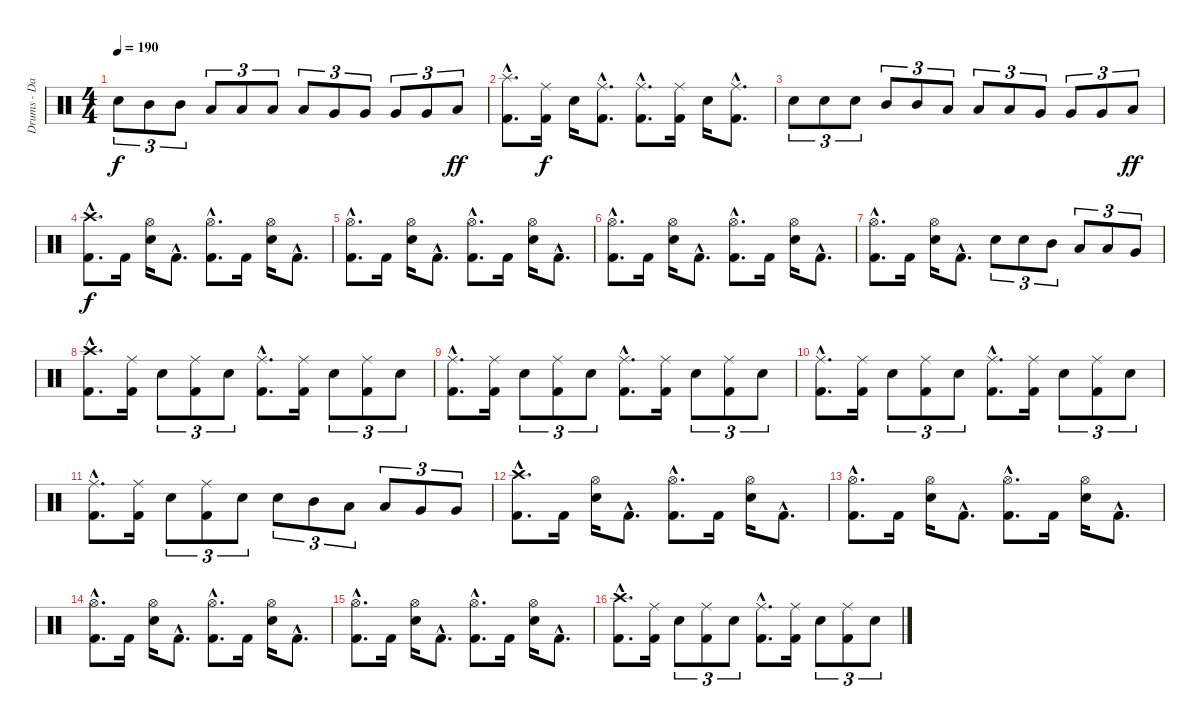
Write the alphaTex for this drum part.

\track ("Drums - Daniel Zimmermann" "Drums - Da") {instrument percussion}
\staff {score}
\articulation defaults
\ts (4 4)
\tempo 190
\clef neutral
\ks c "Electric Snare (hit)".8{tu (3 2) dy f} "Mid Tom (hit)".8{tu (3 2)} "Mid Tom (hit)".8{tu (3 2)} "Low Tom (hit)".8{tu (3 2)} "Low Tom (hit)".8{tu (3 2)} "Low Tom (hit)".8{tu (3 2)} "Low Tom (hit)".8{tu (3 2)} "Very Low Tom (hit)".8{tu (3 2)} "Very Low Tom (hit)".8{tu (3 2)} "Very Low Tom (hit)".8{tu (3 2)} "Very Low Tom (hit)".8{tu (3 2)} "Low Floor Tom (hit)".8{tu (3 2) dy ff}
|
("Kick (hit) 2"{hac} "Splash (hit)"{hac}).8{d} ("Kick (hit) 2" "Ride (middle)").16{dy f} "Electric Snare (hit)".16 ("Kick (hit) 2"{hac} "Ride (middle)"{hac}).8{d} ("Kick (hit) 2"{hac} "Ride (middle)"{hac}).8{d} ("Kick (hit) 2" "Ride (middle)").16 "Electric Snare (hit)".16 ("Kick (hit) 2"{hac} "Ride (middle)"{hac}).8{d} |
"Electric Snare (hit)".8{tu (3 2)} "Electric Snare (hit)".8{tu (3 2)} "Electric Snare (hit)".8{tu (3 2)} "Mid Tom (hit)".8{tu (3 2)} "Mid Tom (hit)".8{tu (3 2)} "Low Tom (hit)".8{tu (3 2)} "Low Tom (hit)".8{tu (3 2)} "Low Tom (hit)".8{tu (3 2)} "Very Low Tom (hit)".8{tu (3 2)} "Very Low Tom (hit)".8{tu (3 2)} "Very Low Tom (hit)".8{tu (3 2)} "Low Floor Tom (hit)".8{tu (3 2) dy ff} |
\section ("" "")
("Kick (hit) 2"{hac} "Crash high (hit)"{hac}).8{d dy f} "Kick (hit) 2".16 ("Electric Snare (hit)" "Hi-Hat (open)").16 "Kick (hit) 2"{hac}.8{d} ("Kick (hit) 2"{hac} "Hi-Hat (open)"{hac}).8{d} "Kick (hit) 2".16 ("Electric Snare (hit)" "Hi-Hat (open)").16 "Kick (hit) 2"{hac}.8{d} |
("Kick (hit) 2"{hac} "Hi-Hat (open)"{hac}).8{d} "Kick (hit) 2".16 ("Electric Snare (hit)" "Hi-Hat (open)").16 "Kick (hit) 2"{hac}.8{d} ("Kick (hit) 2"{hac} "Hi-Hat (open)"{hac}).8{d} "Kick (hit) 2".16 ("Electric Snare (hit)" "Hi-Hat (open)").16 "Kick (hit) 2"{hac}.8{d} |
("Kick (hit) 2"{hac} "Hi-Hat (open)"{hac}).8{d} "Kick (hit) 2".16 ("Electric Snare (hit)" "Hi-Hat (open)").16 "Kick (hit) 2"{hac}.8{d} ("Kick (hit) 2"{hac} "Hi-Hat (open)"{hac}).8{d} "Kick (hit) 2".16 ("Electric Snare (hit)" "Hi-Hat (open)").16 "Kick (hit) 2"{hac}.8{d} |
("Kick (hit) 2"{hac} "Hi-Hat (open)"{hac}).8{d} "Kick (hit) 2".16 ("Electric Snare (hit)" "Hi-Hat (open)").16 "Kick (hit) 2"{hac}.8{d} "Electric Snare (hit)".8{tu (3 2)} "Electric Snare (hit)".8{tu (3 2)} "Mid Tom (hit)".8{tu (3 2)} "Low Tom (hit)".8{tu (3 2)} "Low Tom (hit)".8{tu (3 2)} "Very Low Tom (hit)".8{tu (3 2)} |
("Kick (hit) 2"{hac} "Crash high (hit)"{hac}).8{d} ("Kick (hit) 2" "Ride (middle)").16 "Electric Snare (hit)".8{tu (3 2)} ("Kick (hit) 2" "Ride (middle)").8{tu (3 2)} "Electric Snare (hit)".8{tu (3 2)} ("Kick (hit) 2"{hac} "Ride (middle)"{hac}).8{d} ("Kick (hit) 2" "Ride (middle)").16 "Electric Snare (hit)".8{tu (3 2)} ("Kick (hit) 2" "Ride (middle)").8{tu (3 2)} "Electric Snare (hit)".8{tu (3 2)} |
("Kick (hit) 2"{hac} "Ride (middle)"{hac}).8{d} ("Kick (hit) 2" "Ride (middle)").16 "Electric Snare (hit)".8{tu (3 2)} ("Kick (hit) 2" "Ride (middle)").8{tu (3 2)} "Electric Snare (hit)".8{tu (3 2)} ("Kick (hit) 2"{hac} "Ride (middle)"{hac}).8{d} ("Kick (hit) 2" "Ride (middle)").16 "Electric Snare (hit)".8{tu (3 2)} ("Kick (hit) 2" "Ride (middle)").8{tu (3 2)} "Electric Snare (hit)".8{tu (3 2)} |
("Kick (hit) 2"{hac} "Ride (middle)"{hac}).8{d} ("Kick (hit) 2" "Ride (middle)").16 "Electric Snare (hit)".8{tu (3 2)} ("Kick (hit) 2" "Ride (middle)").8{tu (3 2)} "Electric Snare (hit)".8{tu (3 2)} ("Kick (hit) 2"{hac} "Ride (middle)"{hac}).8{d} ("Kick (hit) 2" "Ride (middle)").16 "Electric Snare (hit)".8{tu (3 2)} ("Kick (hit) 2" "Ride (middle)").8{tu (3 2)} "Electric Snare (hit)".8{tu (3 2)} |
("Kick (hit) 2"{hac} "Ride (middle)"{hac}).8{d} ("Kick (hit) 2" "Ride (middle)").16 "Electric Snare (hit)".8{tu (3 2)} ("Kick (hit) 2" "Ride (middle)").8{tu (3 2)} "Electric Snare (hit)".8{tu (3 2)} "Electric Snare (hit)".8{tu (3 2)} "Mid Tom (hit)".8{tu (3 2)} "Low Tom (hit)".8{tu (3 2)} "Low Tom (hit)".8{tu (3 2)} "Very Low Tom (hit)".8{tu (3 2)} "Very Low Tom (hit)".8{tu (3 2)} |
("Kick (hit) 2"{hac} "Crash high (hit)"{hac}).8{d} "Kick (hit) 2".16 ("Electric Snare (hit)" "Hi-Hat (open)").16 "Kick (hit) 2"{hac}.8{d} ("Kick (hit) 2"{hac} "Hi-Hat (open)"{hac}).8{d} "Kick (hit) 2".16 ("Electric Snare (hit)" "Hi-Hat (open)").16 "Kick (hit) 2"{hac}.8{d} |
("Kick (hit) 2"{hac} "Hi-Hat (open)"{hac}).8{d} "Kick (hit) 2".16 ("Electric Snare (hit)" "Hi-Hat (open)").16 "Kick (hit) 2"{hac}.8{d} ("Kick (hit) 2"{hac} "Hi-Hat (open)"{hac}).8{d} "Kick (hit) 2".16 ("Electric Snare (hit)" "Hi-Hat (open)").16 "Kick (hit) 2"{hac}.8{d} |
("Kick (hit) 2"{hac} "Hi-Hat (open)"{hac}).8{d} "Kick (hit) 2".16 ("Electric Snare (hit)" "Hi-Hat (open)").16 "Kick (hit) 2"{hac}.8{d} ("Kick (hit) 2"{hac} "Hi-Hat (open)"{hac}).8{d} "Kick (hit) 2".16 ("Electric Snare (hit)" "Hi-Hat (open)").16 "Kick (hit) 2"{hac}.8{d} |
("Kick (hit) 2"{hac} "Hi-Hat (open)"{hac}).8{d} "Kick (hit) 2".16 ("Electric Snare (hit)" "Hi-Hat (open)").16 "Kick (hit) 2"{hac}.8{d} ("Kick (hit) 2"{hac} "Hi-Hat (open)"{hac}).8{d} "Kick (hit) 2".16 ("Electric Snare (hit)" "Hi-Hat (open)").16 "Kick (hit) 2"{hac}.8{d} |
("Kick (hit) 2"{hac} "Crash high (hit)"{hac}).8{d} ("Kick (hit) 2" "Ride (middle)").16 "Electric Snare (hit)".8{tu (3 2)} ("Kick (hit) 2" "Ride (middle)").8{tu (3 2)} "Electric Snare (hit)".8{tu (3 2)} ("Kick (hit) 2"{hac} "Ride (middle)"{hac}).8{d} ("Kick (hit) 2" "Ride (middle)").16 "Electric Snare (hit)".8{tu (3 2)} ("Kick (hit) 2" "Ride (middle)").8{tu (3 2)} "Electric Snare (hit)".8{tu (3 2)}
